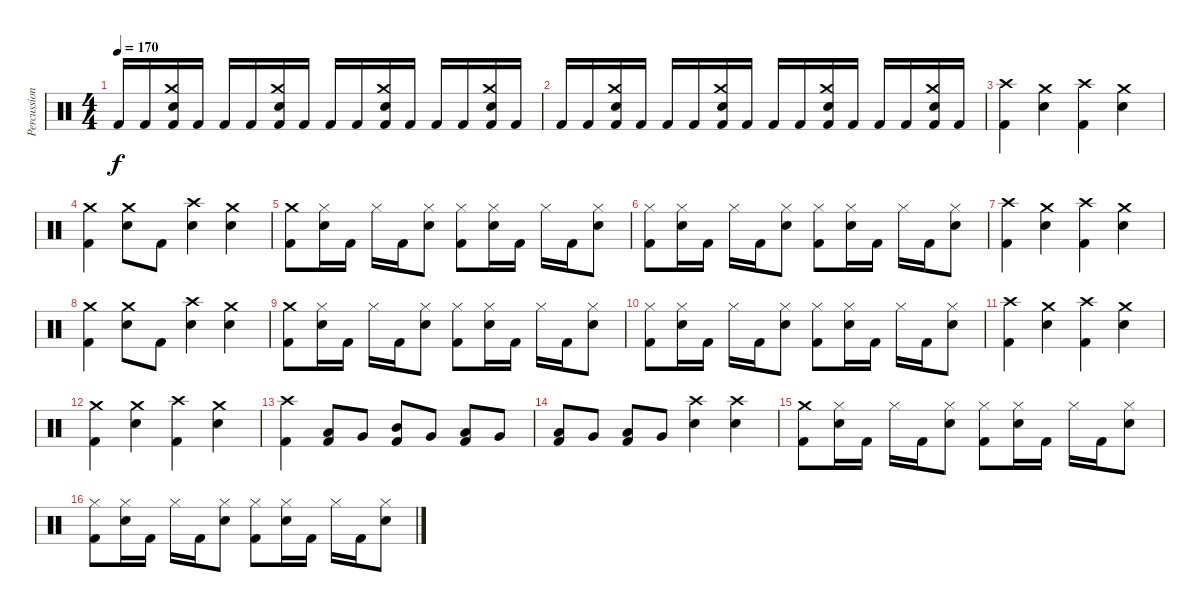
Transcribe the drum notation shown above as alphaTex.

\track ("Percussion" "Percussion") {instrument percussion}
\staff {score}
\articulation defaults
\ts (4 4)
\tempo 170
\clef neutral
\ks c "Kick (hit) 2".16{dy f} "Kick (hit) 2".16
("Crash medium (hit)" "Electric Snare (hit)" "Kick (hit) 2").16 "Kick (hit) 2".16 "Kick (hit) 2".16 "Kick (hit) 2".16 ("Crash medium (hit)" "Electric Snare (hit)" "Kick (hit) 2").16 "Kick (hit) 2".16 "Kick (hit) 2".16 "Kick (hit) 2".16 ("Crash medium (hit)" "Electric Snare (hit)" "Kick (hit) 2").16 "Kick (hit) 2".16 "Kick (hit) 2".16 "Kick (hit) 2".16 ("Crash medium (hit)" "Electric Snare (hit)" "Kick (hit) 2").16 "Kick (hit) 2".16 |
"Kick (hit) 2".16 "Kick (hit) 2".16 ("Crash medium (hit)" "Electric Snare (hit)" "Kick (hit) 2").16 "Kick (hit) 2".16 "Kick (hit) 2".16 "Kick (hit) 2".16 ("Crash medium (hit)" "Electric Snare (hit)" "Kick (hit) 2").16 "Kick (hit) 2".16 "Kick (hit) 2".16 "Kick (hit) 2".16 ("Crash medium (hit)" "Electric Snare (hit)" "Kick (hit) 2").16 "Kick (hit) 2".16 "Kick (hit) 2".16 "Kick (hit) 2".16 ("Crash medium (hit)" "Electric Snare (hit)" "Kick (hit) 2").16 "Kick (hit) 2".16 |
("Crash high (hit)" "Kick (hit) 2").4 ("Crash medium (hit)" "Electric Snare (hit)").4 ("Crash high (hit)" "Kick (hit) 2").4 ("Crash medium (hit)" "Electric Snare (hit)").4 |
("Crash medium (hit)" "Kick (hit) 2").4 ("Crash medium (hit)" "Electric Snare (hit)").8 "Kick (hit) 2".8 ("Crash high (hit)" "Electric Snare (hit)").4 ("Crash medium (hit)" "Electric Snare (hit)").4 |
("Crash medium (hit)" "Kick (hit) 2").8 ("Hi-Hat (closed)" "Electric Snare (hit)").16 "Kick (hit) 2".16 "Hi-Hat (closed)".16 "Kick (hit) 2".16 ("Hi-Hat (closed)" "Electric Snare (hit)").8 ("Hi-Hat (closed)" "Kick (hit) 2").8 ("Hi-Hat (closed)" "Electric Snare (hit)").16 "Kick (hit) 2".16 "Hi-Hat (closed)".16 "Kick (hit) 2".16 ("Hi-Hat (closed)" "Electric Snare (hit)").8 |
("Hi-Hat (closed)" "Kick (hit) 2").8 ("Hi-Hat (closed)" "Electric Snare (hit)").16 "Kick (hit) 2".16 "Hi-Hat (closed)".16 "Kick (hit) 2".16 ("Hi-Hat (closed)" "Electric Snare (hit)").8 ("Hi-Hat (closed)" "Kick (hit) 2").8 ("Hi-Hat (closed)" "Electric Snare (hit)").16 "Kick (hit) 2".16 "Hi-Hat (closed)".16 "Kick (hit) 2".16 ("Hi-Hat (closed)" "Electric Snare (hit)").8 |
("Crash high (hit)" "Kick (hit) 2").4 ("Crash medium (hit)" "Electric Snare (hit)").4 ("Crash high (hit)" "Kick (hit) 2").4 ("Crash medium (hit)" "Electric Snare (hit)").4 |
("Crash medium (hit)" "Kick (hit) 2").4 ("Crash medium (hit)" "Electric Snare (hit)").8 "Kick (hit) 2".8 ("Crash high (hit)" "Electric Snare (hit)").4 ("Crash medium (hit)" "Electric Snare (hit)").4 |
("Crash medium (hit)" "Kick (hit) 2").8 ("Hi-Hat (closed)" "Electric Snare (hit)").16 "Kick (hit) 2".16 "Hi-Hat (closed)".16 "Kick (hit) 2".16 ("Hi-Hat (closed)" "Electric Snare (hit)").8 ("Hi-Hat (closed)" "Kick (hit) 2").8 ("Hi-Hat (closed)" "Electric Snare (hit)").16 "Kick (hit) 2".16 "Hi-Hat (closed)".16 "Kick (hit) 2".16 ("Hi-Hat (closed)" "Electric Snare (hit)").8 |
("Hi-Hat (closed)" "Kick (hit) 2").8 ("Hi-Hat (closed)" "Electric Snare (hit)").16 "Kick (hit) 2".16 "Hi-Hat (closed)".16 "Kick (hit) 2".16 ("Hi-Hat (closed)" "Electric Snare (hit)").8 ("Hi-Hat (closed)" "Kick (hit) 2").8 ("Hi-Hat (closed)" "Electric Snare (hit)").16 "Kick (hit) 2".16 "Hi-Hat (closed)".16 "Kick (hit) 2".16 ("Hi-Hat (closed)" "Electric Snare (hit)").8 |
("Crash high (hit)" "Kick (hit) 2").4 ("Crash medium (hit)" "Electric Snare (hit)").4 ("Crash high (hit)" "Kick (hit) 2").4 ("Crash medium (hit)" "Electric Snare (hit)").4 |
("Crash medium (hit)" "Kick (hit) 2").4 ("Crash medium (hit)" "Electric Snare (hit)").4 ("Crash high (hit)" "Kick (hit) 2").4 ("Crash medium (hit)" "Electric Snare (hit)").4 |
("Crash high (hit)" "Kick (hit) 2").4 ("Low Tom (hit)" "Kick (hit) 2").8 "Very Low Tom (hit)".8 ("Mid Tom (hit)" "Kick (hit) 2").8 "Very Low Tom (hit)".8 ("Low Tom (hit)" "Kick (hit) 2").8 "Very Low Tom (hit)".8 |
("Low Floor Tom (hit)" "Kick (hit) 2").8 "Very Low Tom (hit)".8 ("Low Floor Tom (hit)" "Kick (hit) 2").8 "Very Low Tom (hit)".8 ("Crash high (hit)" "Electric Snare (hit)").4 ("Crash high (hit)" "Electric Snare (hit)").4 |
("Crash medium (hit)" "Kick (hit) 2").8 ("Hi-Hat (closed)" "Electric Snare (hit)").16 "Kick (hit) 2".16 "Hi-Hat (closed)".16 "Kick (hit) 2".16 ("Hi-Hat (closed)" "Electric Snare (hit)").8 ("Hi-Hat (closed)" "Kick (hit) 2").8 ("Hi-Hat (closed)" "Electric Snare (hit)").16 "Kick (hit) 2".16 "Hi-Hat (closed)".16 "Kick (hit) 2".16 ("Hi-Hat (closed)" "Electric Snare (hit)").8 |
("Hi-Hat (closed)" "Kick (hit) 2").8 ("Hi-Hat (closed)" "Electric Snare (hit)").16 "Kick (hit) 2".16 "Hi-Hat (closed)".16 "Kick (hit) 2".16 ("Hi-Hat (closed)" "Electric Snare (hit)").8 ("Hi-Hat (closed)" "Kick (hit) 2").8 ("Hi-Hat (closed)" "Electric Snare (hit)").16 "Kick (hit) 2".16 "Hi-Hat (closed)".16 "Kick (hit) 2".16 ("Hi-Hat (closed)" "Electric Snare (hit)").8
